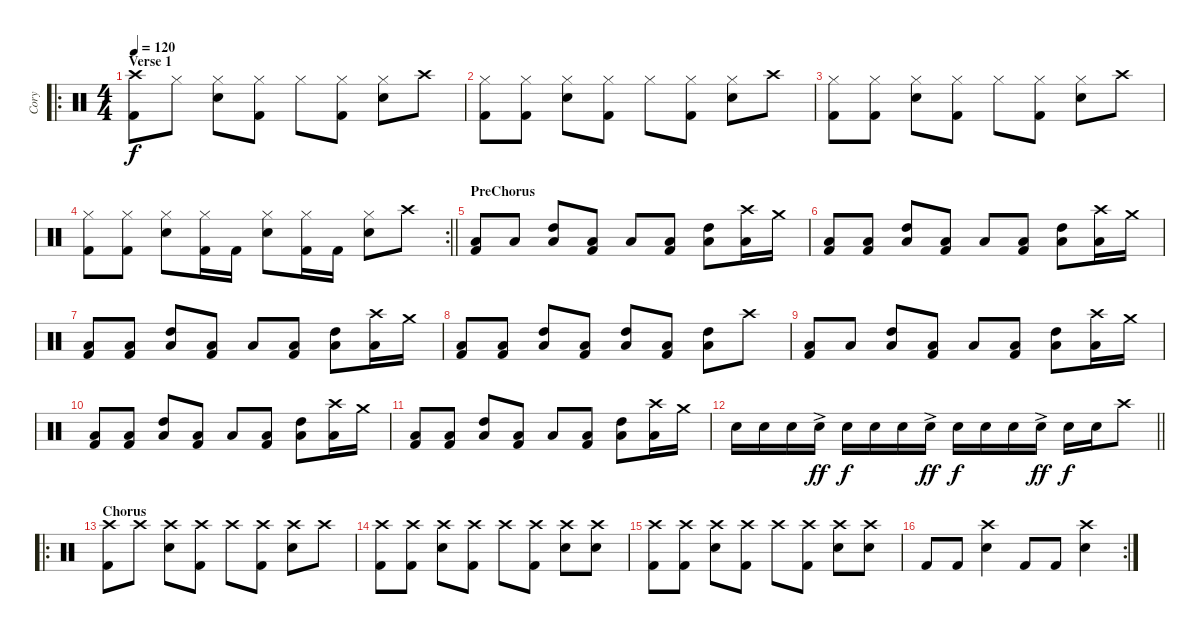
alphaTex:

\track ("Cory" "Cory") {instrument percussion}
\staff {score}
\articulation defaults
\ro
\ts (4 4)
\section ("" "Verse 1")
\tempo 120
\clef neutral
\ks c
("Crash high (hit)" "Kick (hit) 2").8{dy f} "Hi-Hat (closed)".8 ("Hi-Hat (closed)" "Snare (hit) 2").8 ("Hi-Hat (closed)" "Kick (hit) 2").8 "Hi-Hat (closed)".8 ("Hi-Hat (closed)" "Kick (hit) 2").8 ("Hi-Hat (closed)" "Snare (hit) 2").8 "Crash high (hit)".8 |
("Hi-Hat (closed)" "Kick (hit) 2").8 ("Hi-Hat (closed)" "Kick (hit) 2").8 ("Hi-Hat (closed)" "Snare (hit) 2").8 ("Hi-Hat (closed)" "Kick (hit) 2").8 "Hi-Hat (closed)".8 ("Hi-Hat (closed)" "Kick (hit) 2").8 ("Hi-Hat (closed)" "Snare (hit) 2").8 "Crash high (hit)".8 |
("Hi-Hat (closed)" "Kick (hit) 2").8 ("Hi-Hat (closed)" "Kick (hit) 2").8 ("Hi-Hat (closed)" "Snare (hit) 2").8 ("Hi-Hat (closed)" "Kick (hit) 2").8 "Hi-Hat (closed)".8 ("Hi-Hat (closed)" "Kick (hit) 2").8 ("Hi-Hat (closed)" "Snare (hit) 2").8 "Crash high (hit)".8 |
\rc 2
\barLineRight lightlight
("Hi-Hat (closed)" "Kick (hit) 2").8 ("Hi-Hat (closed)" "Kick (hit) 2").8 ("Hi-Hat (closed)" "Snare (hit) 2").8 ("Hi-Hat (closed)" "Kick (hit) 2").16 "Kick (hit) 2".16 ("Hi-Hat (closed)" "Snare (hit) 2").8 ("Hi-Hat (closed)" "Kick (hit) 2").16 "Kick (hit) 2".16 ("Hi-Hat (closed)" "Snare (hit) 2").8 "Crash high (hit)".8 |
\section ("" "PreChorus")
("Low Tom (hit)" "Kick (hit) 2").8 "Low Tom (hit)".8 ("High Tom (hit)" "Low Tom (hit)").8 ("Low Tom (hit)" "Kick (hit) 2").8 "Low Tom (hit)".8 ("Low Tom (hit)" "Kick (hit) 2").8 ("High Tom (hit)" "Low Tom (hit)").8 ("Crash high (hit)" "Low Tom (hit)").16 "Crash medium (hit)".16 |
("Low Tom (hit)" "Kick (hit) 2").8 ("Low Tom (hit)" "Kick (hit) 2").8 ("High Tom (hit)" "Low Tom (hit)").8 ("Low Tom (hit)" "Kick (hit) 2").8 "Low Tom (hit)".8 ("Low Tom (hit)" "Kick (hit) 2").8 ("High Tom (hit)" "Low Tom (hit)").8 ("Crash high (hit)" "Low Tom (hit)").16 "Crash medium (hit)".16 |
("Low Tom (hit)" "Kick (hit) 2").8 ("Low Tom (hit)" "Kick (hit) 2").8 ("High Tom (hit)" "Low Tom (hit)").8 ("Low Tom (hit)" "Kick (hit) 2").8 "Low Tom (hit)".8 ("Low Tom (hit)" "Kick (hit) 2").8 ("High Tom (hit)" "Low Tom (hit)").8 ("Crash high (hit)" "Low Tom (hit)").16 "Crash medium (hit)".16 |
("Low Tom (hit)" "Kick (hit) 2").8 ("Low Tom (hit)" "Kick (hit) 2").8 ("High Tom (hit)" "Low Tom (hit)").8 ("Low Tom (hit)" "Kick (hit) 2").8 ("High Tom (hit)" "Low Tom (hit)").8 ("Low Tom (hit)" "Kick (hit) 2").8 ("High Tom (hit)" "Low Tom (hit)").8 "Crash high (hit)".8 |
("Low Tom (hit)" "Kick (hit) 2").8 "Low Tom (hit)".8 ("High Tom (hit)" "Low Tom (hit)").8 ("Low Tom (hit)" "Kick (hit) 2").8 "Low Tom (hit)".8 ("Low Tom (hit)" "Kick (hit) 2").8 ("High Tom (hit)" "Low Tom (hit)").8 ("Crash high (hit)" "Low Tom (hit)").16 "Crash medium (hit)".16 |
("Low Tom (hit)" "Kick (hit) 2").8 ("Low Tom (hit)" "Kick (hit) 2").8 ("High Tom (hit)" "Low Tom (hit)").8 ("Low Tom (hit)" "Kick (hit) 2").8 "Low Tom (hit)".8 ("Low Tom (hit)" "Kick (hit) 2").8 ("High Tom (hit)" "Low Tom (hit)").8 ("Crash high (hit)" "Low Tom (hit)").16 "Crash medium (hit)".16 |
("Low Tom (hit)" "Kick (hit) 2").8 ("Low Tom (hit)" "Kick (hit) 2").8 ("High Tom (hit)" "Low Tom (hit)").8 ("Low Tom (hit)" "Kick (hit) 2").8 "Low Tom (hit)".8 ("Low Tom (hit)" "Kick (hit) 2").8 ("High Tom (hit)" "Low Tom (hit)").8 ("Crash high (hit)" "Low Tom (hit)").16 "Crash medium (hit)".16 |
\barLineRight lightlight "Snare (hit) 2".16 "Snare (hit) 2".16 "Snare (hit) 2".16 "Snare (hit) 2"{ac}.16{dy ff} "Snare (hit) 2".16{dy f} "Snare (hit) 2".16 "Snare (hit) 2".16 "Snare (hit) 2"{ac}.16{dy ff} "Snare (hit) 2".16{dy f} "Snare (hit) 2".16 "Snare (hit) 2".16 "Snare (hit) 2"{ac}.16{dy ff} "Snare (hit) 2".16{dy f} "Snare (hit) 2".16 "Crash high (hit)".8
|
\ro
\section ("" "Chorus")
("Crash high (hit)" "Kick (hit) 2").8 "Crash high (hit)".8 ("Crash high (hit)" "Snare (hit) 2").8 ("Crash high (hit)" "Kick (hit) 2").8 "Crash high (hit)".8 ("Crash high (hit)" "Kick (hit) 2").8 ("Crash high (hit)" "Snare (hit) 2").8 "Crash high (hit)".8 |
("Crash high (hit)" "Kick (hit) 2").8 ("Crash high (hit)" "Kick (hit) 2").8 ("Crash high (hit)" "Snare (hit) 2").8 ("Crash high (hit)" "Kick (hit) 2").8 "Crash high (hit)".8 ("Crash high (hit)" "Kick (hit) 2").8 ("Crash high (hit)" "Snare (hit) 2").8 ("Crash high (hit)" "Snare (hit) 2").8 |
("Crash high (hit)" "Kick (hit) 2").8 ("Crash high (hit)" "Kick (hit) 2").8 ("Crash high (hit)" "Snare (hit) 2").8 ("Crash high (hit)" "Kick (hit) 2").8 "Crash high (hit)".8 ("Crash high (hit)" "Kick (hit) 2").8 ("Crash high (hit)" "Snare (hit) 2").8 ("Crash high (hit)" "Snare (hit) 2").8 |
\rc 2 "Kick (hit) 2".8 "Kick (hit) 2".8
("Crash high (hit)" "Snare (hit) 2").4 "Kick (hit) 2".8 "Kick (hit) 2".8 ("Crash high (hit)" "Snare (hit) 2").4
